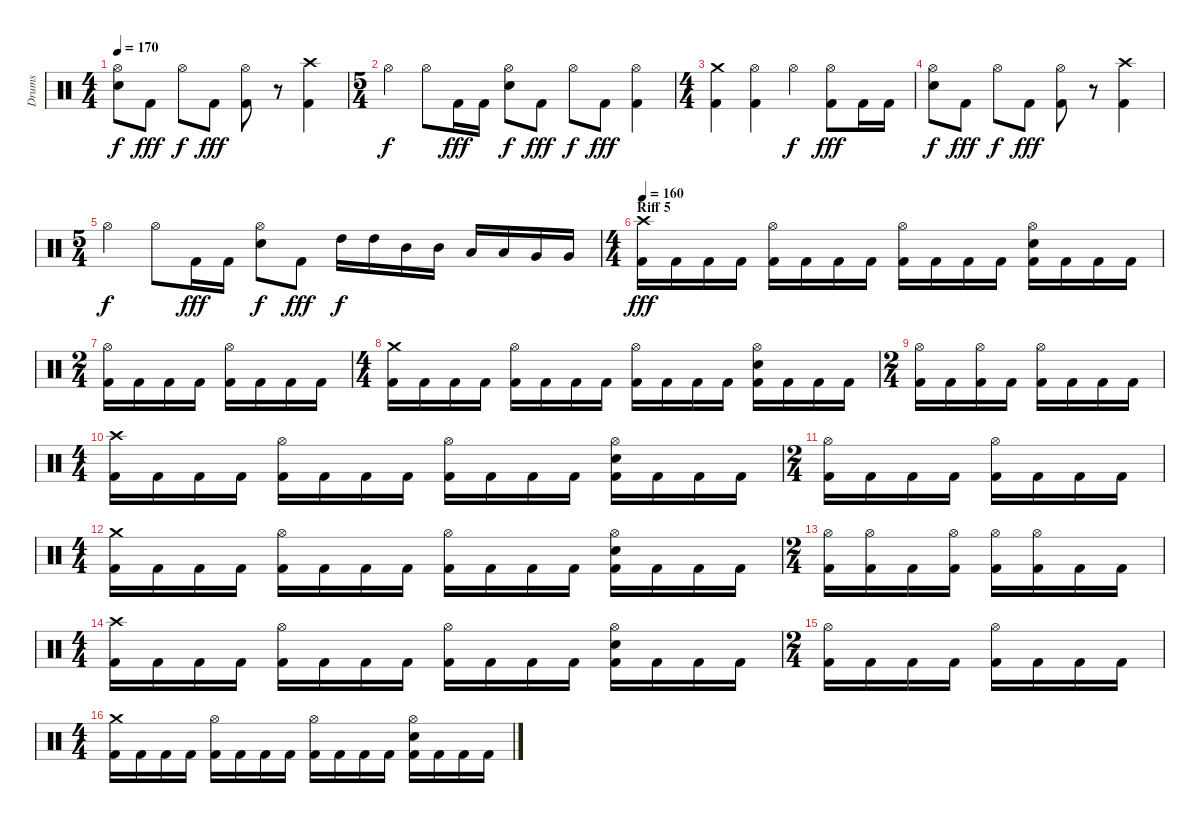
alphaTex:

\track ("Drums" "Drums") {instrument percussion}
\staff {score}
\articulation defaults
\ts (4 4)
\tempo 170
\clef neutral
\ks c
("Hi-Hat (open)" "Electric Snare (hit)").8{dy f} "Kick (hit) 2".8{dy fff} "Hi-Hat (open)".8{dy f} "Kick (hit) 2".8{dy fff} ("Hi-Hat (open)" "Kick (hit) 2").8 r.8 ("Crash high (hit)" "Kick (hit) 2").4 |
\ts (5 4)
"Hi-Hat (open)".4{dy f} "Hi-Hat (open)".8 "Kick (hit) 2".16{dy fff} "Kick (hit) 2".16 ("Hi-Hat (open)" "Electric Snare (hit)").8{dy f} "Kick (hit) 2".8{dy fff} "Hi-Hat (open)".8{dy f} "Kick (hit) 2".8{dy fff} ("Hi-Hat (open)" "Kick (hit) 2").4 |
\ts (4 4)
("Crash medium (hit)" "Kick (hit) 2").4 ("Hi-Hat (open)" "Kick (hit) 2").4 "Hi-Hat (open)".4{dy f} ("Hi-Hat (open)" "Kick (hit) 2").8{dy fff} "Kick (hit) 2".16 "Kick (hit) 2".16 |
("Hi-Hat (open)" "Electric Snare (hit)").8{dy f} "Kick (hit) 2".8{dy fff} "Hi-Hat (open)".8{dy f} "Kick (hit) 2".8{dy fff} ("Hi-Hat (open)" "Kick (hit) 2").8 r.8 ("Crash high (hit)" "Kick (hit) 2").4 |
\ts (5 4)
"Hi-Hat (open)".4{dy f} "Hi-Hat (open)".8 "Kick (hit) 2".16{dy fff} "Kick (hit) 2".16 ("Hi-Hat (open)" "Electric Snare (hit)").8{dy f} "Kick (hit) 2".8{dy fff} "High Tom (hit)".16{dy f} "High Tom (hit)".16 "Mid Tom (hit)".16 "Mid Tom (hit)".16 "Low Tom (hit)".16 "Low Tom (hit)".16 "Very Low Tom (hit)".16 "Very Low Tom (hit)".16 |
\ts (4 4)
\section ("" "Riff 5")
\tempo 160
("Crash high (hit)" "Kick (hit) 2").16{dy fff} "Kick (hit) 2".16 "Kick (hit) 2".16 "Kick (hit) 2".16 ("Hi-Hat (open)" "Kick (hit) 2").16 "Kick (hit) 2".16 "Kick (hit) 2".16 "Kick (hit) 2".16 ("Hi-Hat (open)" "Kick (hit) 2").16 "Kick (hit) 2".16 "Kick (hit) 2".16 "Kick (hit) 2".16 ("Hi-Hat (open)" "Electric Snare (hit)" "Kick (hit) 2").16 "Kick (hit) 2".16 "Kick (hit) 2".16 "Kick (hit) 2".16 |
\ts (2 4)
("Hi-Hat (open)" "Kick (hit) 2").16 "Kick (hit) 2".16 "Kick (hit) 2".16 "Kick (hit) 2".16 ("Hi-Hat (open)" "Kick (hit) 2").16 "Kick (hit) 2".16 "Kick (hit) 2".16 "Kick (hit) 2".16 |
\ts (4 4)
("Crash medium (hit)" "Kick (hit) 2").16 "Kick (hit) 2".16 "Kick (hit) 2".16 "Kick (hit) 2".16 ("Hi-Hat (open)" "Kick (hit) 2").16 "Kick (hit) 2".16 "Kick (hit) 2".16 "Kick (hit) 2".16 ("Hi-Hat (open)" "Kick (hit) 2").16 "Kick (hit) 2".16 "Kick (hit) 2".16 "Kick (hit) 2".16 ("Hi-Hat (open)" "Electric Snare (hit)" "Kick (hit) 2").16 "Kick (hit) 2".16 "Kick (hit) 2".16 "Kick (hit) 2".16 |
\ts (2 4)
("Hi-Hat (open)" "Kick (hit) 2").16 "Kick (hit) 2".16 ("Hi-Hat (open)" "Kick (hit) 2").16 "Kick (hit) 2".16 ("Hi-Hat (open)" "Kick (hit) 2").16 "Kick (hit) 2".16 "Kick (hit) 2".16 "Kick (hit) 2".16 |
\ts (4 4)
("Crash high (hit)" "Kick (hit) 2").16 "Kick (hit) 2".16 "Kick (hit) 2".16 "Kick (hit) 2".16 ("Hi-Hat (open)" "Kick (hit) 2").16 "Kick (hit) 2".16 "Kick (hit) 2".16 "Kick (hit) 2".16 ("Hi-Hat (open)" "Kick (hit) 2").16 "Kick (hit) 2".16 "Kick (hit) 2".16 "Kick (hit) 2".16 ("Hi-Hat (open)" "Electric Snare (hit)" "Kick (hit) 2").16 "Kick (hit) 2".16 "Kick (hit) 2".16 "Kick (hit) 2".16 |
\ts (2 4)
("Hi-Hat (open)" "Kick (hit) 2").16 "Kick (hit) 2".16 "Kick (hit) 2".16 "Kick (hit) 2".16 ("Hi-Hat (open)" "Kick (hit) 2").16 "Kick (hit) 2".16 "Kick (hit) 2".16 "Kick (hit) 2".16 |
\ts (4 4)
("Crash medium (hit)" "Kick (hit) 2").16 "Kick (hit) 2".16 "Kick (hit) 2".16 "Kick (hit) 2".16 ("Hi-Hat (open)" "Kick (hit) 2").16 "Kick (hit) 2".16 "Kick (hit) 2".16 "Kick (hit) 2".16 ("Hi-Hat (open)" "Kick (hit) 2").16 "Kick (hit) 2".16 "Kick (hit) 2".16 "Kick (hit) 2".16 ("Hi-Hat (open)" "Electric Snare (hit)" "Kick (hit) 2").16 "Kick (hit) 2".16 "Kick (hit) 2".16 "Kick (hit) 2".16 |
\ts (2 4)
("Hi-Hat (open)" "Kick (hit) 2").16 ("Hi-Hat (open)" "Kick (hit) 2").16 "Kick (hit) 2".16 ("Hi-Hat (open)" "Kick (hit) 2").16 ("Hi-Hat (open)" "Kick (hit) 2").16 ("Hi-Hat (open)" "Kick (hit) 2").16 "Kick (hit) 2".16 "Kick (hit) 2".16 |
\ts (4 4)
("Crash high (hit)" "Kick (hit) 2").16 "Kick (hit) 2".16 "Kick (hit) 2".16 "Kick (hit) 2".16 ("Hi-Hat (open)" "Kick (hit) 2").16 "Kick (hit) 2".16 "Kick (hit) 2".16 "Kick (hit) 2".16 ("Hi-Hat (open)" "Kick (hit) 2").16 "Kick (hit) 2".16 "Kick (hit) 2".16 "Kick (hit) 2".16 ("Hi-Hat (open)" "Electric Snare (hit)" "Kick (hit) 2").16 "Kick (hit) 2".16 "Kick (hit) 2".16 "Kick (hit) 2".16 |
\ts (2 4)
("Hi-Hat (open)" "Kick (hit) 2").16 "Kick (hit) 2".16 "Kick (hit) 2".16 "Kick (hit) 2".16 ("Hi-Hat (open)" "Kick (hit) 2").16 "Kick (hit) 2".16 "Kick (hit) 2".16 "Kick (hit) 2".16 |
\ts (4 4)
("Crash medium (hit)" "Kick (hit) 2").16 "Kick (hit) 2".16 "Kick (hit) 2".16 "Kick (hit) 2".16 ("Hi-Hat (open)" "Kick (hit) 2").16 "Kick (hit) 2".16 "Kick (hit) 2".16 "Kick (hit) 2".16 ("Hi-Hat (open)" "Kick (hit) 2").16 "Kick (hit) 2".16 "Kick (hit) 2".16 "Kick (hit) 2".16 ("Hi-Hat (open)" "Electric Snare (hit)" "Kick (hit) 2").16 "Kick (hit) 2".16 "Kick (hit) 2".16 "Kick (hit) 2".16
